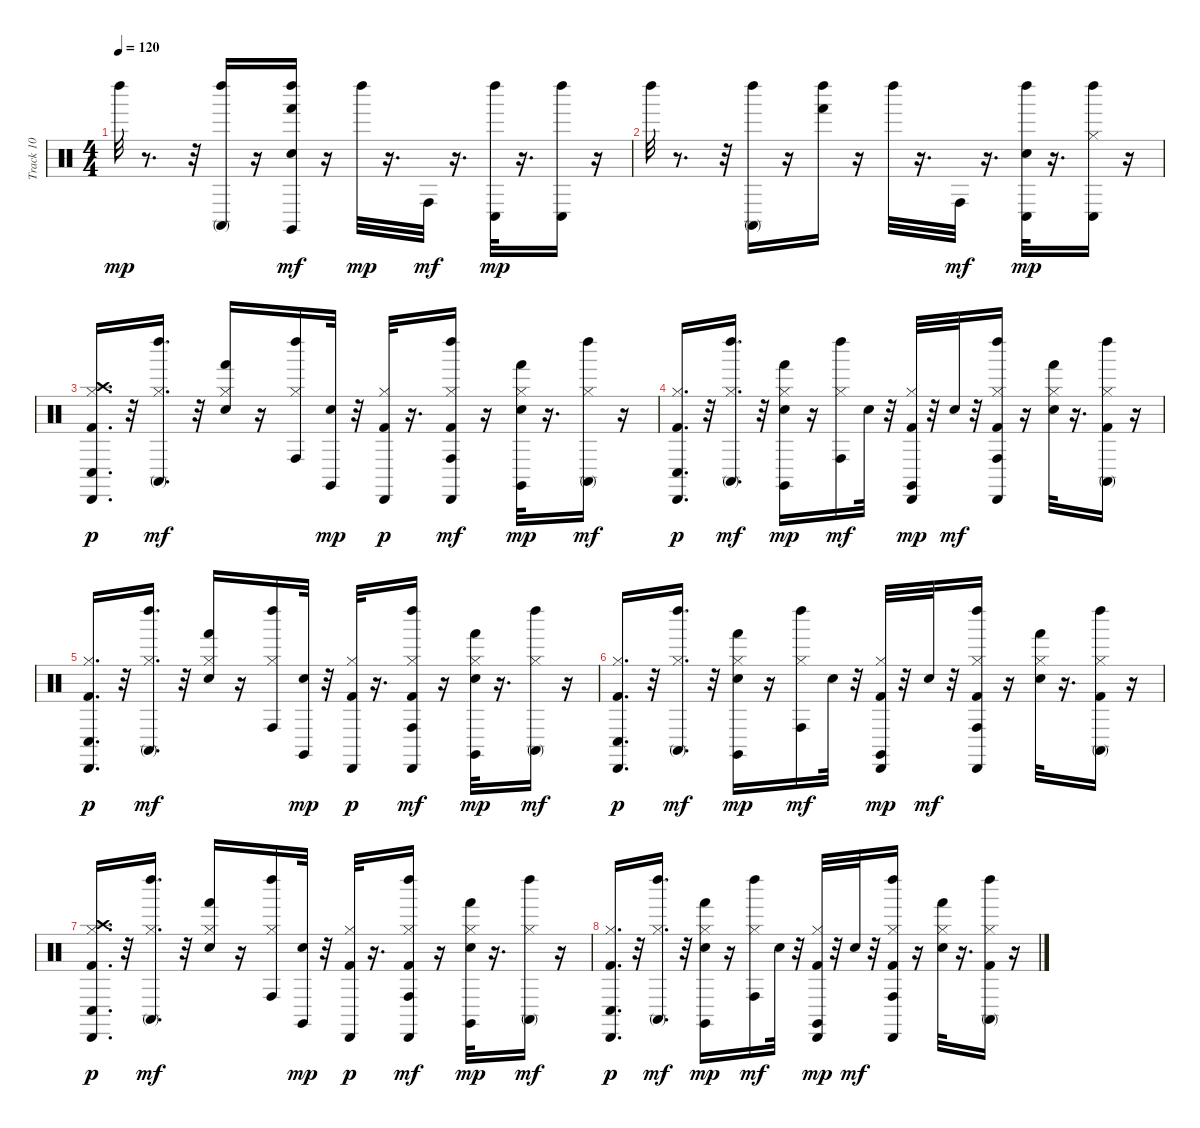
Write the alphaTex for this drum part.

\track ("Track 10" "Track 10") {instrument percussion}
\staff {score}
\articulation defaults
\ts (4 4)
\tempo 120
\clef neutral
\ks c "Left Maraca (hit)".32{dy mp}
r.8{d} r.32 ("Conga high (mute)" "Left Maraca (hit)").16 r.16 ("Snare (hit)" "Hand (hit)" "Left Maraca (hit)" "Claves (hit)").16{dy mf} r.16 "Left Maraca (hit)".32{dy mp} r.16{d} "Conga high (hit)".32{dy mf} r.16{d} ("Conga low (hit)" "Left Maraca (hit)").32{dy mp} r.16{d} ("Conga low (hit)" "Left Maraca (hit)").16 r.16 |
"Left Maraca (hit)".32 r.8{d} r.32 ("Conga high (mute)" "Left Maraca (hit)").16 r.16 ("Hand (hit)" "Left Maraca (hit)").16 r.16 "Left Maraca (hit)".32 r.16{d} "Conga high (hit)".32{dy mf} r.16{d} ("Electric Snare (hit)" "Conga low (hit)" "Left Maraca (hit)").32{dy mp} r.16{d} ("Hi-Hat (closed)" "Conga low (hit)" "Left Maraca (hit)").16 r.16 |
("Kick (hit) 2" "Hi-Hat (closed)" "Crash high (hit)" "Conga low (hit)" "Cabasa (hit)").16{d dy p} r.32 ("Hi-Hat (closed)" "Conga high (mute)" "Left Maraca (hit)").16{d dy mf} r.32 ("Electric Snare (hit)" "Hi-Hat (closed)" "Hand (hit)").16 r.16 ("Hi-Hat (closed)" "Conga high (hit)" "Left Maraca (hit)").16 ("Electric Snare (hit)" "Claves (hit)").32{dy mp} r.32 ("Kick (hit) 2" "Hi-Hat (closed)" "Cabasa (hit)").32{dy p} r.16{d} ("Kick (hit) 2" "Hi-Hat (closed)" "Conga high (hit)" "Cabasa (hit)" "Left Maraca (hit)").16{dy mf} r.16 ("Electric Snare (hit)" "Hi-Hat (closed)" "Hand (hit)" "Claves (hit)").32{dy mp} r.16{d} ("Hi-Hat (closed)" "Conga high (mute)" "Left Maraca (hit)").16{dy mf} r.16 |
("Kick (hit) 2" "Hi-Hat (closed)" "Conga low (hit)" "Cabasa (hit)").16{d dy p} r.32 ("Hi-Hat (closed)" "Conga high (mute)" "Left Maraca (hit)").16{d dy mf} r.32 ("Electric Snare (hit)" "Hi-Hat (closed)" "Hand (hit)" "Claves (hit)").16{dy mp} r.16 ("Hi-Hat (closed)" "Conga high (hit)" "Left Maraca (hit)").16{dy mf} "Electric Snare (hit)".32 r.32 ("Kick (hit) 2" "Hi-Hat (closed)" "Cabasa (hit)" "Claves (hit)").32{dy mp} r.32 "Electric Snare (hit)".32{dy mf} r.32 ("Kick (hit) 2" "Hi-Hat (closed)" "Conga high (hit)" "Cabasa (hit)" "Left Maraca (hit)").16 r.16 ("Electric Snare (hit)" "Hi-Hat (closed)" "Hand (hit)").32 r.16{d} ("Kick (hit) 2" "Hi-Hat (closed)" "Conga high (mute)" "Left Maraca (hit)").16 r.16 |
("Kick (hit) 2" "Hi-Hat (closed)" "Conga low (hit)" "Cabasa (hit)").16{d dy p} r.32 ("Hi-Hat (closed)" "Conga high (mute)" "Left Maraca (hit)").16{d dy mf} r.32 ("Electric Snare (hit)" "Hi-Hat (closed)" "Hand (hit)").16 r.16 ("Hi-Hat (closed)" "Conga high (hit)" "Left Maraca (hit)").16 ("Electric Snare (hit)" "Claves (hit)").32{dy mp} r.32 ("Kick (hit) 2" "Hi-Hat (closed)" "Cabasa (hit)").32{dy p} r.16{d} ("Kick (hit) 2" "Hi-Hat (closed)" "Conga high (hit)" "Cabasa (hit)" "Left Maraca (hit)").16{dy mf} r.16 ("Electric Snare (hit)" "Hi-Hat (closed)" "Hand (hit)" "Claves (hit)").32{dy mp} r.16{d} ("Hi-Hat (closed)" "Conga high (mute)" "Left Maraca (hit)").16{dy mf} r.16 |
("Kick (hit) 2" "Hi-Hat (closed)" "Conga low (hit)" "Cabasa (hit)").16{d dy p} r.32 ("Hi-Hat (closed)" "Conga high (mute)" "Left Maraca (hit)").16{d dy mf} r.32 ("Electric Snare (hit)" "Hi-Hat (closed)" "Hand (hit)" "Claves (hit)").16{dy mp} r.16 ("Hi-Hat (closed)" "Conga high (hit)" "Left Maraca (hit)").16{dy mf} "Electric Snare (hit)".32 r.32 ("Kick (hit) 2" "Hi-Hat (closed)" "Cabasa (hit)" "Claves (hit)").32{dy mp} r.32 "Electric Snare (hit)".32{dy mf} r.32 ("Kick (hit) 2" "Hi-Hat (closed)" "Conga high (hit)" "Cabasa (hit)" "Left Maraca (hit)").16 r.16 ("Electric Snare (hit)" "Hi-Hat (closed)" "Hand (hit)").32 r.16{d} ("Kick (hit) 2" "Hi-Hat (closed)" "Conga high (mute)" "Left Maraca (hit)").16 r.16 |
("Kick (hit) 2" "Hi-Hat (closed)" "Crash high (hit)" "Conga low (hit)" "Cabasa (hit)").16{d dy p} r.32 ("Hi-Hat (closed)" "Conga high (mute)" "Left Maraca (hit)").16{d dy mf} r.32 ("Electric Snare (hit)" "Hi-Hat (closed)" "Hand (hit)").16 r.16 ("Hi-Hat (closed)" "Conga high (hit)" "Left Maraca (hit)").16 ("Electric Snare (hit)" "Claves (hit)").32{dy mp} r.32 ("Kick (hit) 2" "Hi-Hat (closed)" "Cabasa (hit)").32{dy p} r.16{d} ("Kick (hit) 2" "Hi-Hat (closed)" "Conga high (hit)" "Cabasa (hit)" "Left Maraca (hit)").16{dy mf} r.16 ("Electric Snare (hit)" "Hi-Hat (closed)" "Hand (hit)" "Claves (hit)").32{dy mp} r.16{d} ("Hi-Hat (closed)" "Conga high (mute)" "Left Maraca (hit)").16{dy mf} r.16 |
("Kick (hit) 2" "Hi-Hat (closed)" "Conga low (hit)" "Cabasa (hit)").16{d dy p} r.32 ("Hi-Hat (closed)" "Conga high (mute)" "Left Maraca (hit)").16{d dy mf} r.32 ("Electric Snare (hit)" "Hi-Hat (closed)" "Hand (hit)" "Claves (hit)").16{dy mp} r.16 ("Hi-Hat (closed)" "Conga high (hit)" "Left Maraca (hit)").16{dy mf} "Electric Snare (hit)".32 r.32 ("Kick (hit) 2" "Hi-Hat (closed)" "Cabasa (hit)" "Claves (hit)").32{dy mp} r.32 "Electric Snare (hit)".32{dy mf} r.32 ("Kick (hit) 2" "Hi-Hat (closed)" "Conga high (hit)" "Cabasa (hit)" "Left Maraca (hit)").16 r.16 ("Electric Snare (hit)" "Hi-Hat (closed)" "Hand (hit)").32 r.16{d} ("Kick (hit) 2" "Hi-Hat (closed)" "Conga high (mute)" "Left Maraca (hit)").16 r.16
